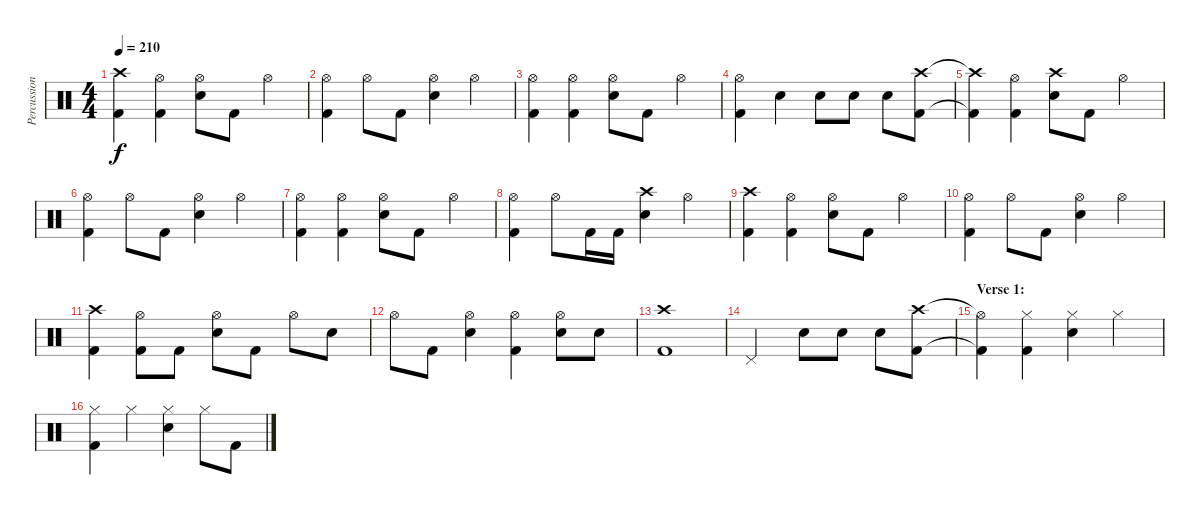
\track ("Percussion" "Percussion") {instrument percussion}
\staff {score}
\articulation defaults
\ts (4 4)
\tempo 210
\clef neutral
\ks c
("Crash high (hit)" "Kick (hit) 2").4{dy f} ("Hi-Hat (open)" "Kick (hit) 2").4 ("Hi-Hat (open)" "Snare (hit) 2").8 "Kick (hit) 2".8 "Hi-Hat (open)".4 |
("Hi-Hat (open)" "Kick (hit) 2").4 "Hi-Hat (open)".8 "Kick (hit) 2".8 ("Hi-Hat (open)" "Snare (hit) 2").4 "Hi-Hat (open)".4 |
("Hi-Hat (open)" "Kick (hit) 2").4 ("Hi-Hat (open)" "Kick (hit) 2").4 ("Hi-Hat (open)" "Snare (hit) 2").8 "Kick (hit) 2".8 "Hi-Hat (open)".4 |
("Hi-Hat (open)" "Kick (hit) 2").4 "Snare (hit) 2".4 "Snare (hit) 2".8 "Snare (hit) 2".8 "Snare (hit) 2".8 ("Crash high (hit)" "Kick (hit) 2").8 |
("Crash high (hit)"{t} "Kick (hit) 2"{t}).4 ("Hi-Hat (open)" "Kick (hit) 2").4 ("Crash high (hit)" "Snare (hit) 2").8 "Kick (hit) 2".8 "Hi-Hat (open)".4 |
("Hi-Hat (open)" "Kick (hit) 2").4 "Hi-Hat (open)".8 "Kick (hit) 2".8 ("Hi-Hat (open)" "Snare (hit) 2").4 "Hi-Hat (open)".4 |
("Hi-Hat (open)" "Kick (hit) 2").4 ("Hi-Hat (open)" "Kick (hit) 2").4 ("Hi-Hat (open)" "Snare (hit) 2").8 "Kick (hit) 2".8 "Hi-Hat (open)".4 |
("Hi-Hat (open)" "Kick (hit) 2").4 "Hi-Hat (open)".8 "Kick (hit) 2".16 "Kick (hit) 2".16 ("Crash high (hit)" "Snare (hit) 2").4 "Hi-Hat (open)".4 |
("Crash high (hit)" "Kick (hit) 2").4 ("Hi-Hat (open)" "Kick (hit) 2").4 ("Hi-Hat (open)" "Snare (hit) 2").8 "Kick (hit) 2".8 "Hi-Hat (open)".4 |
("Hi-Hat (open)" "Kick (hit) 2").4 "Hi-Hat (open)".8 "Kick (hit) 2".8 ("Hi-Hat (open)" "Snare (hit) 2").4 "Hi-Hat (open)".4 |
("Crash high (hit)" "Kick (hit) 2").4 ("Hi-Hat (open)" "Kick (hit) 2").8 "Kick (hit) 2".8 ("Hi-Hat (open)" "Snare (hit) 2").8 "Kick (hit) 2".8 "Hi-Hat (open)".8 "Snare (hit) 2".8 |
"Hi-Hat (open)".8 "Kick (hit) 2".8 ("Hi-Hat (open)" "Snare (hit) 2").4 ("Hi-Hat (open)" "Kick (hit) 2").4 ("Hi-Hat (open)" "Snare (hit) 2").8 "Snare (hit) 2".8 |
("Crash high (hit)" "Kick (hit) 2").1 |
"Pedal Hi-Hat (hit)".2 "Snare (hit) 2".8 "Snare (hit) 2".8 "Snare (hit) 2".8 ("Crash high (hit)" "Kick (hit) 2").8 |
\section ("" "Verse 1:")
("Hi-Hat (open)"{t} "Kick (hit) 2"{t}).4 ("Hi-Hat (closed)" "Kick (hit) 2").4 ("Hi-Hat (closed)" "Snare (hit) 2").4 "Hi-Hat (closed)".4 |
("Hi-Hat (closed)" "Kick (hit) 2").4 "Hi-Hat (closed)".4 ("Hi-Hat (closed)" "Snare (hit) 2").4 "Hi-Hat (closed)".8 "Kick (hit) 2".8
